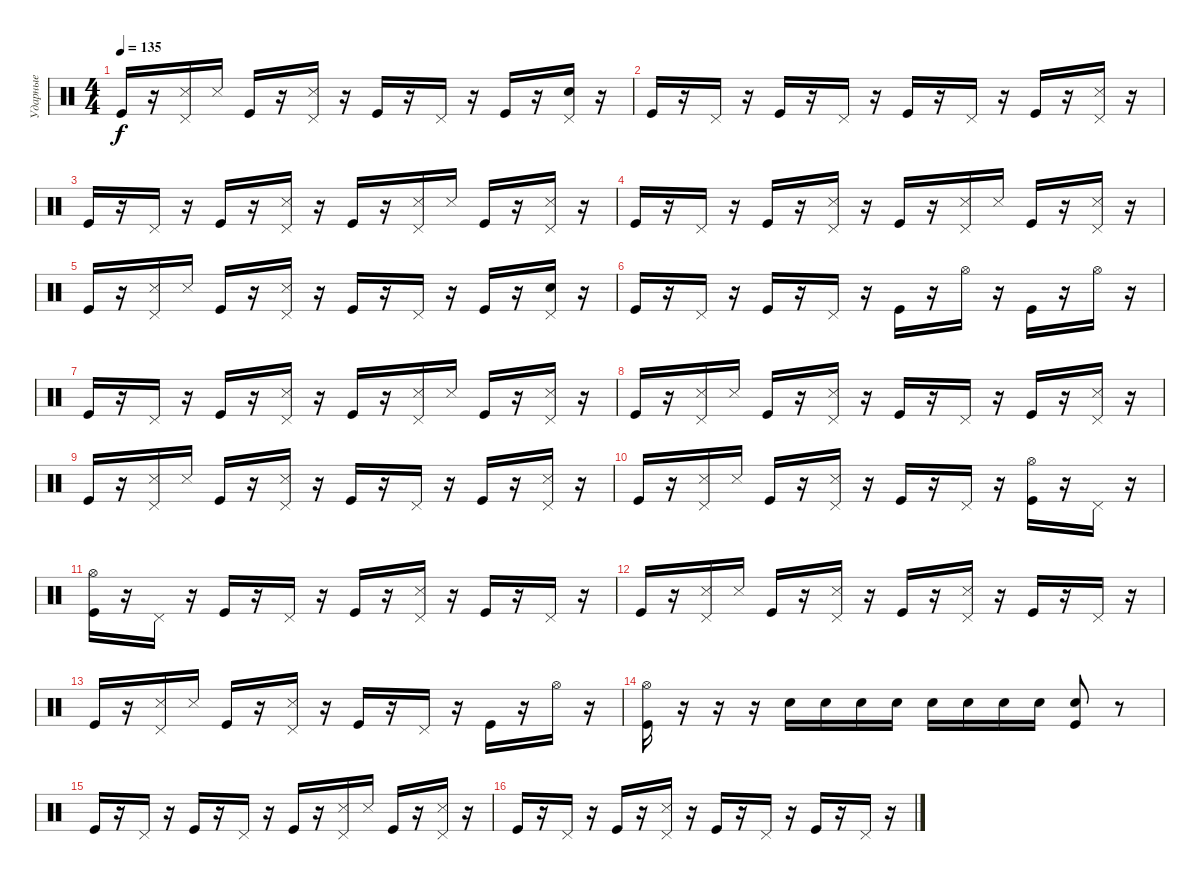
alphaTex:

\track ("Ударные" "Ударные") {instrument percussion}
\staff {score}
\articulation defaults
\ts (4 4)
\tempo 135
\clef neutral
\ks c "Kick (hit)".16{dy f}
r.16 ("Snare (side stick) 3" "Pedal Hi-Hat (hit)").16 "Snare (side stick) 3".16 "Kick (hit)".16 r.16 ("Snare (side stick) 3" "Pedal Hi-Hat (hit)").16 r.16 "Kick (hit)".16 r.16 "Pedal Hi-Hat (hit)".16 r.16 "Kick (hit)".16 r.16 ("Snare (hit) 2" "Pedal Hi-Hat (hit)").16 r.16 |
"Kick (hit)".16 r.16 "Pedal Hi-Hat (hit)".16 r.16 "Kick (hit)".16 r.16 "Pedal Hi-Hat (hit)".16 r.16 "Kick (hit)".16 r.16 "Pedal Hi-Hat (hit)".16 r.16 "Kick (hit)".16 r.16 ("Snare (side stick) 3" "Pedal Hi-Hat (hit)").16 r.16 |
"Kick (hit)".16 r.16 "Pedal Hi-Hat (hit)".16 r.16 "Kick (hit)".16 r.16 ("Snare (side stick) 3" "Pedal Hi-Hat (hit)").16 r.16 "Kick (hit)".16 r.16 ("Snare (side stick) 3" "Pedal Hi-Hat (hit)").16 "Snare (side stick) 3".16 "Kick (hit)".16 r.16 ("Snare (side stick) 3" "Pedal Hi-Hat (hit)").16 r.16 |
"Kick (hit)".16 r.16 "Pedal Hi-Hat (hit)".16 r.16 "Kick (hit)".16 r.16 ("Snare (side stick) 3" "Pedal Hi-Hat (hit)").16 r.16 "Kick (hit)".16 r.16 ("Snare (side stick) 3" "Pedal Hi-Hat (hit)").16 "Snare (side stick) 3".16 "Kick (hit)".16 r.16 ("Snare (side stick) 3" "Pedal Hi-Hat (hit)").16 r.16 |
"Kick (hit)".16 r.16 ("Snare (side stick) 3" "Pedal Hi-Hat (hit)").16 "Snare (side stick) 3".16 "Kick (hit)".16 r.16 ("Snare (side stick) 3" "Pedal Hi-Hat (hit)").16 r.16 "Kick (hit)".16 r.16 "Pedal Hi-Hat (hit)".16 r.16 "Kick (hit)".16 r.16 ("Snare (hit) 2" "Pedal Hi-Hat (hit)").16 r.16 |
"Kick (hit)".16 r.16 "Pedal Hi-Hat (hit)".16 r.16 "Kick (hit)".16 r.16 "Pedal Hi-Hat (hit)".16 r.16 "Kick (hit)".16 r.16 "Hi-Hat (open)".16 r.16 "Kick (hit)".16 r.16 "Hi-Hat (open)".16 r.16 |
"Kick (hit)".16 r.16 "Pedal Hi-Hat (hit)".16 r.16 "Kick (hit)".16 r.16 ("Snare (side stick) 3" "Pedal Hi-Hat (hit)").16 r.16 "Kick (hit)".16 r.16 ("Snare (side stick) 3" "Pedal Hi-Hat (hit)").16 "Snare (side stick) 3".16 "Kick (hit)".16 r.16 ("Snare (side stick) 3" "Pedal Hi-Hat (hit)").16 r.16 |
"Kick (hit)".16 r.16 ("Snare (side stick) 3" "Pedal Hi-Hat (hit)").16 "Snare (side stick) 3".16 "Kick (hit)".16 r.16 ("Snare (side stick) 3" "Pedal Hi-Hat (hit)").16 r.16 "Kick (hit)".16 r.16 "Pedal Hi-Hat (hit)".16 r.16 "Kick (hit)".16 r.16 ("Snare (side stick) 3" "Pedal Hi-Hat (hit)").16 r.16 |
"Kick (hit)".16 r.16 ("Snare (side stick) 3" "Pedal Hi-Hat (hit)").16 "Snare (side stick) 3".16 "Kick (hit)".16 r.16 ("Snare (side stick) 3" "Pedal Hi-Hat (hit)").16 r.16 "Kick (hit)".16 r.16 "Pedal Hi-Hat (hit)".16 r.16 "Kick (hit)".16 r.16 ("Snare (side stick) 3" "Pedal Hi-Hat (hit)").16 r.16 |
"Kick (hit)".16 r.16 ("Snare (side stick) 3" "Pedal Hi-Hat (hit)").16 "Snare (side stick) 3".16 "Kick (hit)".16 r.16 ("Snare (side stick) 3" "Pedal Hi-Hat (hit)").16 r.16 "Kick (hit)".16 r.16 "Pedal Hi-Hat (hit)".16 r.16 ("Hi-Hat (open)" "Kick (hit)").16 r.16 "Pedal Hi-Hat (hit)".16 r.16 |
("Hi-Hat (open)" "Kick (hit)").16 r.16 "Pedal Hi-Hat (hit)".16 r.16 "Kick (hit)".16 r.16 "Pedal Hi-Hat (hit)".16 r.16 "Kick (hit)".16 r.16 ("Snare (side stick) 3" "Pedal Hi-Hat (hit)").16 r.16 "Kick (hit)".16 r.16 "Pedal Hi-Hat (hit)".16 r.16 |
"Kick (hit)".16 r.16 ("Snare (side stick) 3" "Pedal Hi-Hat (hit)").16 "Snare (side stick) 3".16 "Kick (hit)".16 r.16 ("Snare (side stick) 3" "Pedal Hi-Hat (hit)").16 r.16 "Kick (hit)".16 r.16 ("Snare (side stick) 3" "Pedal Hi-Hat (hit)").16 r.16 "Kick (hit)".16 r.16 "Pedal Hi-Hat (hit)".16 r.16 |
"Kick (hit)".16 r.16 ("Snare (side stick) 3" "Pedal Hi-Hat (hit)").16 "Snare (side stick) 3".16 "Kick (hit)".16 r.16 ("Snare (side stick) 3" "Pedal Hi-Hat (hit)").16 r.16 "Kick (hit)".16 r.16 "Pedal Hi-Hat (hit)".16 r.16 "Kick (hit)".16 r.16 "Hi-Hat (open)".16 r.16 |
("Hi-Hat (open)" "Kick (hit)").16 r.16 r.16 r.16 "Electric Snare (hit)".16 "Electric Snare (hit)".16 "Electric Snare (hit)".16 "Electric Snare (hit)".16 "Electric Snare (hit)".16 "Electric Snare (hit)".16 "Electric Snare (hit)".16 "Electric Snare (hit)".16 ("Electric Snare (hit)" "Kick (hit)").8 r.8 |
"Kick (hit)".16 r.16 "Pedal Hi-Hat (hit)".16 r.16 "Kick (hit)".16 r.16 "Pedal Hi-Hat (hit)".16 r.16 "Kick (hit)".16 r.16 ("Snare (side stick) 3" "Pedal Hi-Hat (hit)").16 "Snare (side stick) 3".16 "Kick (hit)".16 r.16 ("Snare (side stick) 3" "Pedal Hi-Hat (hit)").16 r.16 |
"Kick (hit)".16 r.16 "Pedal Hi-Hat (hit)".16 r.16 "Kick (hit)".16 r.16 ("Snare (side stick) 3" "Pedal Hi-Hat (hit)").16 r.16 "Kick (hit)".16 r.16 "Pedal Hi-Hat (hit)".16 r.16 "Kick (hit)".16 r.16 "Pedal Hi-Hat (hit)".16 r.16
